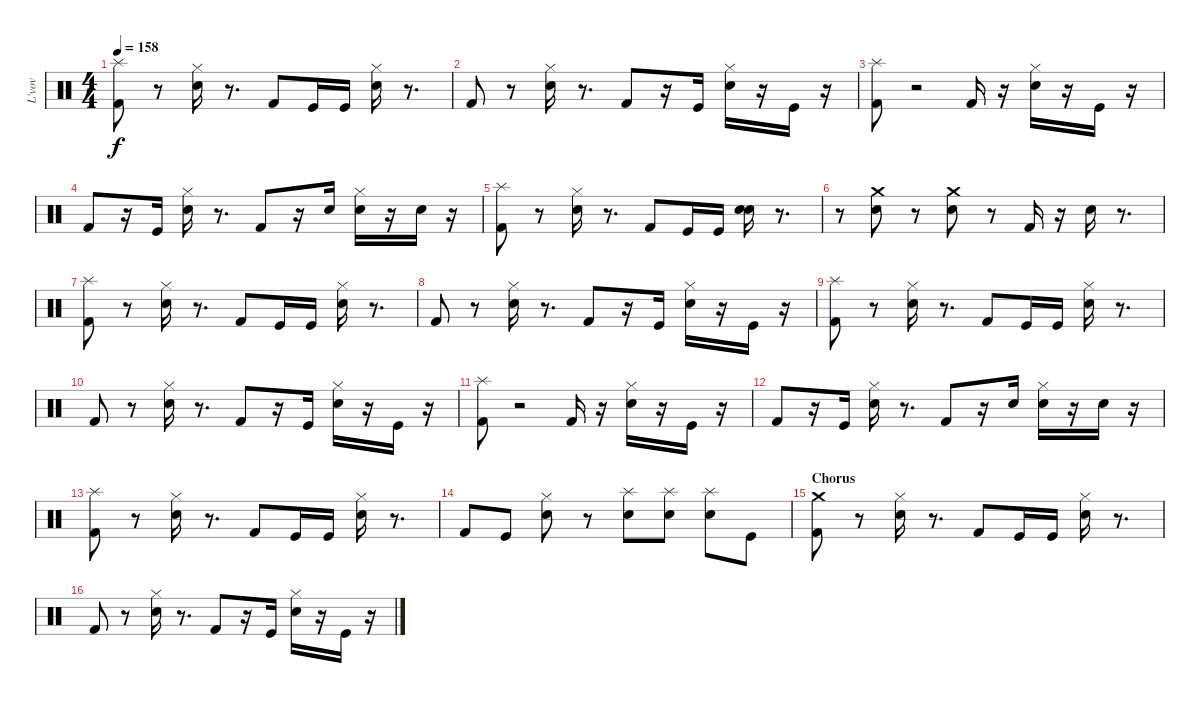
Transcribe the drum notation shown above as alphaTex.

\track ("L'vov " "L'vov ") {instrument percussion}
\staff {score}
\articulation defaults
\ts (4 4)
\tempo 158
\clef neutral
\ks c
("Splash (hit)" "Kick (hit) 2").8{dy f} r.8 ("Snare (hit) 2" "Hi-Hat (closed)").16 r.8{d} "Kick (hit) 2".8 "Kick (hit)".16 "Kick (hit)".16 ("Snare (hit) 2" "Hi-Hat (closed)").16 r.8{d} |
"Kick (hit) 2".8 r.8 ("Snare (hit) 2" "Hi-Hat (closed)").16 r.8{d} "Kick (hit) 2".8 r.16 "Kick (hit)".16 ("Electric Snare (hit)" "Hi-Hat (closed)").16 r.16 "Kick (hit)".16 r.16 |
("Splash (hit)" "Kick (hit) 2").8 r.2 "Kick (hit) 2".16 r.16 ("Snare (hit) 2" "Hi-Hat (closed)").16 r.16 "Kick (hit)".16 r.16 |
"Kick (hit) 2".8 r.16 "Kick (hit)".16 ("Snare (hit) 2" "Hi-Hat (closed)").16 r.8{d} "Kick (hit) 2".8 r.16 "Electric Snare (hit)".16 ("Snare (hit) 2" "Hi-Hat (closed)").16 r.16 "Electric Snare (hit)".16 r.16 |
("Splash (hit)" "Kick (hit) 2").8 r.8 ("Snare (hit) 2" "Hi-Hat (closed)").16 r.8{d} "Kick (hit) 2".8 "Kick (hit)".16 "Kick (hit)".16 ("Snare (hit) 2" "Snare (hit)").16 r.8{d} |
r.8 ("Crash medium (hit)" "Snare (hit) 2").8 r.8 ("Crash medium (hit)" "Snare (hit) 2").8 r.8 "Kick (hit) 2".16 r.16 "Electric Snare (hit)".16 r.8{d} |
("Splash (hit)" "Kick (hit) 2").8 r.8 ("Snare (hit) 2" "Hi-Hat (closed)").16 r.8{d} "Kick (hit) 2".8 "Kick (hit)".16 "Kick (hit)".16 ("Snare (hit) 2" "Hi-Hat (closed)").16 r.8{d} |
"Kick (hit) 2".8 r.8 ("Snare (hit) 2" "Hi-Hat (closed)").16 r.8{d} "Kick (hit) 2".8 r.16 "Kick (hit)".16 ("Electric Snare (hit)" "Hi-Hat (closed)").16 r.16 "Kick (hit)".16 r.16 |
("Splash (hit)" "Kick (hit) 2").8 r.8 ("Snare (hit) 2" "Hi-Hat (closed)").16 r.8{d} "Kick (hit) 2".8 "Kick (hit)".16 "Kick (hit)".16 ("Snare (hit) 2" "Hi-Hat (closed)").16 r.8{d} |
"Kick (hit) 2".8 r.8 ("Snare (hit) 2" "Hi-Hat (closed)").16 r.8{d} "Kick (hit) 2".8 r.16 "Kick (hit)".16 ("Electric Snare (hit)" "Hi-Hat (closed)").16 r.16 "Kick (hit)".16 r.16 |
("Splash (hit)" "Kick (hit) 2").8 r.2 "Kick (hit) 2".16 r.16 ("Snare (hit) 2" "Hi-Hat (closed)").16 r.16 "Kick (hit)".16 r.16 |
"Kick (hit) 2".8 r.16 "Kick (hit)".16 ("Snare (hit) 2" "Hi-Hat (closed)").16 r.8{d} "Kick (hit) 2".8 r.16 "Electric Snare (hit)".16 ("Snare (hit) 2" "Hi-Hat (closed)").16 r.16 "Electric Snare (hit)".16 r.16 |
("Splash (hit)" "Kick (hit) 2").8 r.8 ("Snare (hit) 2" "Hi-Hat (closed)").16 r.8{d} "Kick (hit) 2".8 "Kick (hit)".16 "Kick (hit)".16 ("Snare (hit) 2" "Hi-Hat (closed)").16 r.8{d} |
"Kick (hit) 2".8 "Kick (hit)".8 ("Snare (hit) 2" "Hi-Hat (closed)").8 r.8 ("Splash (hit)" "Electric Snare (hit)").8 ("Splash (hit)" "Electric Snare (hit)").8 ("Splash (hit)" "Electric Snare (hit)").8 "Kick (hit)".8 |
\section ("" "Chorus")
("Crash medium (hit)" "Kick (hit) 2").8 r.8 ("Snare (hit) 2" "Hi-Hat (closed)").16 r.8{d} "Kick (hit) 2".8 "Kick (hit)".16 "Kick (hit)".16 ("Snare (hit) 2" "Hi-Hat (closed)").16 r.8{d} |
"Kick (hit) 2".8 r.8 ("Snare (hit) 2" "Hi-Hat (closed)").16 r.8{d} "Kick (hit) 2".8 r.16 "Kick (hit)".16 ("Electric Snare (hit)" "Hi-Hat (closed)").16 r.16 "Kick (hit)".16 r.16
